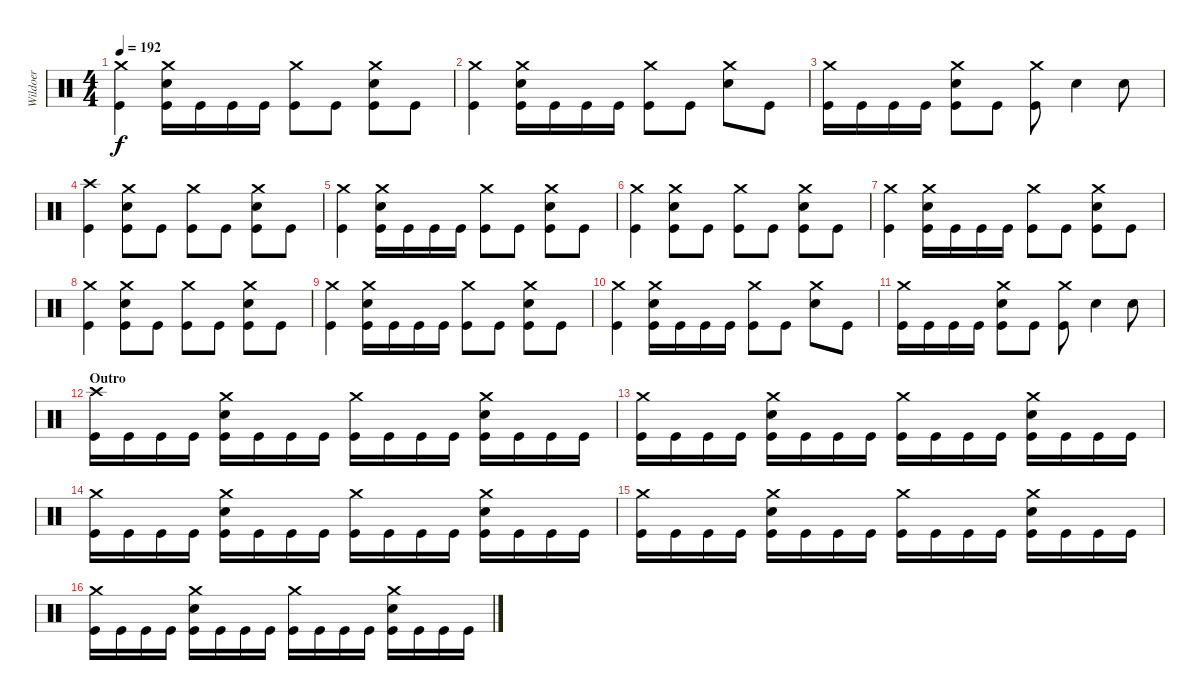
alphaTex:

\track ("Wildoer" "Wildoer") {instrument percussion}
\staff {score}
\articulation defaults
\ts (4 4)
\tempo 192
\clef neutral
\ks c
("Crash medium (hit)" "Kick (hit)").4{dy f} ("Crash medium (hit)" "Electric Snare (hit)" "Kick (hit)").16 "Kick (hit)".16 "Kick (hit)".16 "Kick (hit)".16 ("Crash medium (hit)" "Kick (hit)").8 "Kick (hit)".8 ("Crash medium (hit)" "Electric Snare (hit)" "Kick (hit)").8 "Kick (hit)".8 |
("Crash medium (hit)" "Kick (hit)").4 ("Crash medium (hit)" "Electric Snare (hit)" "Kick (hit)").16 "Kick (hit)".16 "Kick (hit)".16 "Kick (hit)".16 ("Crash medium (hit)" "Kick (hit)").8 "Kick (hit)".8 ("Crash medium (hit)" "Electric Snare (hit)").8 "Kick (hit)".8 |
("Crash medium (hit)" "Kick (hit)").16 "Kick (hit)".16 "Kick (hit)".16 "Kick (hit)".16 ("Crash medium (hit)" "Electric Snare (hit)" "Kick (hit)").8 "Kick (hit)".8 ("Crash medium (hit)" "Kick (hit)").8 "Electric Snare (hit)".4 "Electric Snare (hit)".8 |
("Crash high (hit)" "Kick (hit)").4 ("Crash medium (hit)" "Electric Snare (hit)" "Kick (hit)").8 "Kick (hit)".8 ("Crash medium (hit)" "Kick (hit)").8 "Kick (hit)".8 ("Crash medium (hit)" "Electric Snare (hit)" "Kick (hit)").8 "Kick (hit)".8 |
("Crash medium (hit)" "Kick (hit)").4 ("Crash medium (hit)" "Electric Snare (hit)" "Kick (hit)").16 "Kick (hit)".16 "Kick (hit)".16 "Kick (hit)".16 ("Crash medium (hit)" "Kick (hit)").8 "Kick (hit)".8 ("Crash medium (hit)" "Electric Snare (hit)" "Kick (hit)").8 "Kick (hit)".8 |
("Crash medium (hit)" "Kick (hit)").4 ("Crash medium (hit)" "Electric Snare (hit)" "Kick (hit)").8 "Kick (hit)".8 ("Crash medium (hit)" "Kick (hit)").8 "Kick (hit)".8 ("Crash medium (hit)" "Electric Snare (hit)" "Kick (hit)").8 "Kick (hit)".8 |
("Crash medium (hit)" "Kick (hit)").4 ("Crash medium (hit)" "Electric Snare (hit)" "Kick (hit)").16 "Kick (hit)".16 "Kick (hit)".16 "Kick (hit)".16 ("Crash medium (hit)" "Kick (hit)").8 "Kick (hit)".8 ("Crash medium (hit)" "Electric Snare (hit)" "Kick (hit)").8 "Kick (hit)".8 |
("Crash medium (hit)" "Kick (hit)").4 ("Crash medium (hit)" "Electric Snare (hit)" "Kick (hit)").8 "Kick (hit)".8 ("Crash medium (hit)" "Kick (hit)").8 "Kick (hit)".8 ("Crash medium (hit)" "Electric Snare (hit)" "Kick (hit)").8 "Kick (hit)".8 |
("Crash medium (hit)" "Kick (hit)").4 ("Crash medium (hit)" "Electric Snare (hit)" "Kick (hit)").16 "Kick (hit)".16 "Kick (hit)".16 "Kick (hit)".16 ("Crash medium (hit)" "Kick (hit)").8 "Kick (hit)".8 ("Crash medium (hit)" "Electric Snare (hit)" "Kick (hit)").8 "Kick (hit)".8 |
("Crash medium (hit)" "Kick (hit)").4 ("Crash medium (hit)" "Electric Snare (hit)" "Kick (hit)").16 "Kick (hit)".16 "Kick (hit)".16 "Kick (hit)".16 ("Crash medium (hit)" "Kick (hit)").8 "Kick (hit)".8 ("Crash medium (hit)" "Electric Snare (hit)").8 "Kick (hit)".8 |
("Crash medium (hit)" "Kick (hit)").16 "Kick (hit)".16 "Kick (hit)".16 "Kick (hit)".16 ("Crash medium (hit)" "Electric Snare (hit)" "Kick (hit)").8 "Kick (hit)".8 ("Crash medium (hit)" "Kick (hit)").8 "Electric Snare (hit)".4 "Electric Snare (hit)".8 |
\section ("" "Outro")
("Crash high (hit)" "Kick (hit)").16 "Kick (hit)".16 "Kick (hit)".16 "Kick (hit)".16 ("Crash medium (hit)" "Electric Snare (hit)" "Kick (hit)").16 "Kick (hit)".16 "Kick (hit)".16 "Kick (hit)".16 ("Crash medium (hit)" "Kick (hit)").16 "Kick (hit)".16 "Kick (hit)".16 "Kick (hit)".16 ("Crash medium (hit)" "Electric Snare (hit)" "Kick (hit)").16 "Kick (hit)".16 "Kick (hit)".16 "Kick (hit)".16 |
("Crash medium (hit)" "Kick (hit)").16 "Kick (hit)".16 "Kick (hit)".16 "Kick (hit)".16 ("Crash medium (hit)" "Electric Snare (hit)" "Kick (hit)").16 "Kick (hit)".16 "Kick (hit)".16 "Kick (hit)".16 ("Crash medium (hit)" "Kick (hit)").16 "Kick (hit)".16 "Kick (hit)".16 "Kick (hit)".16 ("Crash medium (hit)" "Electric Snare (hit)" "Kick (hit)").16 "Kick (hit)".16 "Kick (hit)".16 "Kick (hit)".16 |
("Crash medium (hit)" "Kick (hit)").16 "Kick (hit)".16 "Kick (hit)".16 "Kick (hit)".16 ("Crash medium (hit)" "Electric Snare (hit)" "Kick (hit)").16 "Kick (hit)".16 "Kick (hit)".16 "Kick (hit)".16 ("Crash medium (hit)" "Kick (hit)").16 "Kick (hit)".16 "Kick (hit)".16 "Kick (hit)".16 ("Crash medium (hit)" "Electric Snare (hit)" "Kick (hit)").16 "Kick (hit)".16 "Kick (hit)".16 "Kick (hit)".16 |
("Crash medium (hit)" "Kick (hit)").16 "Kick (hit)".16 "Kick (hit)".16 "Kick (hit)".16 ("Crash medium (hit)" "Electric Snare (hit)" "Kick (hit)").16 "Kick (hit)".16 "Kick (hit)".16 "Kick (hit)".16 ("Crash medium (hit)" "Kick (hit)").16 "Kick (hit)".16 "Kick (hit)".16 "Kick (hit)".16 ("Crash medium (hit)" "Electric Snare (hit)" "Kick (hit)").16 "Kick (hit)".16 "Kick (hit)".16 "Kick (hit)".16 |
("Crash medium (hit)" "Kick (hit)").16 "Kick (hit)".16 "Kick (hit)".16 "Kick (hit)".16 ("Crash medium (hit)" "Electric Snare (hit)" "Kick (hit)").16 "Kick (hit)".16 "Kick (hit)".16 "Kick (hit)".16 ("Crash medium (hit)" "Kick (hit)").16 "Kick (hit)".16 "Kick (hit)".16 "Kick (hit)".16 ("Crash medium (hit)" "Electric Snare (hit)" "Kick (hit)").16 "Kick (hit)".16 "Kick (hit)".16 "Kick (hit)".16
